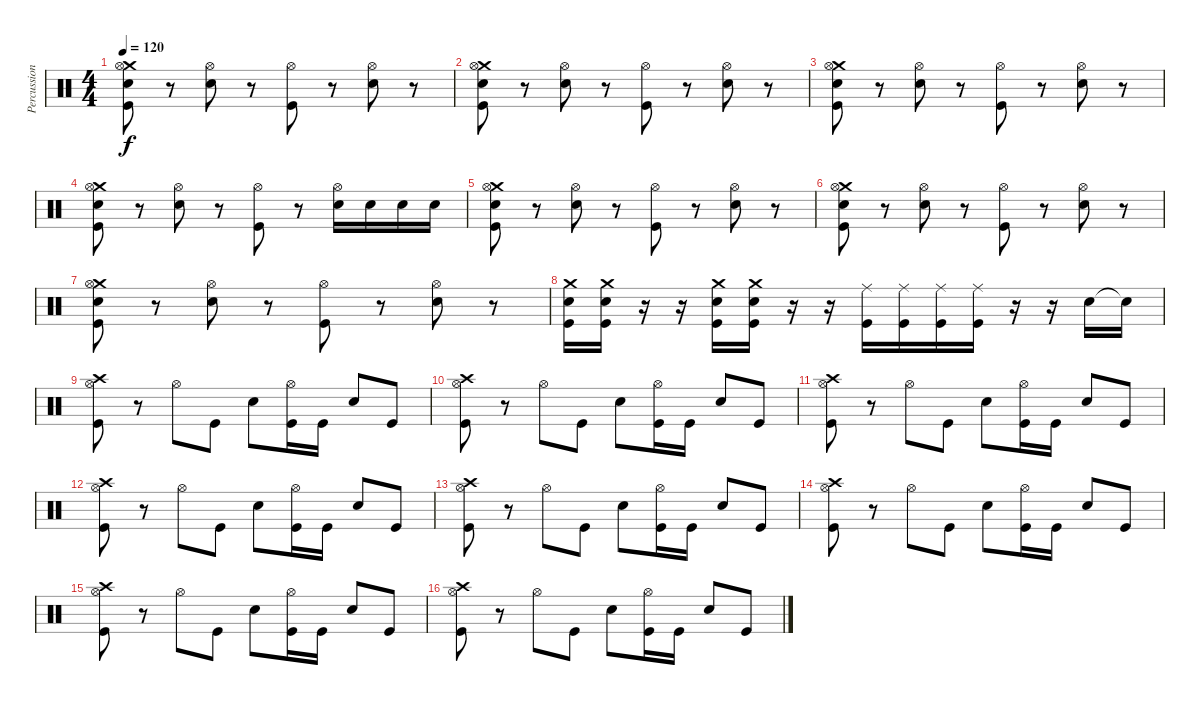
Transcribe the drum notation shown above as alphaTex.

\track ("Percussion" "Percussion") {instrument percussion}
\staff {score}
\articulation defaults
\ts (4 4)
\tempo 120
\clef neutral
\ks c
("Crash medium (hit)" "Hi-Hat (open)" "Electric Snare (hit)" "Kick (hit)").8{dy f} r.8 ("Hi-Hat (open)" "Electric Snare (hit)").8 r.8 ("Hi-Hat (open)" "Kick (hit)").8 r.8 ("Hi-Hat (open)" "Electric Snare (hit)").8 r.8 |
("Crash medium (hit)" "Hi-Hat (open)" "Electric Snare (hit)" "Kick (hit)").8 r.8 ("Hi-Hat (open)" "Electric Snare (hit)").8 r.8 ("Hi-Hat (open)" "Kick (hit)").8 r.8 ("Hi-Hat (open)" "Electric Snare (hit)").8 r.8 |
("Crash medium (hit)" "Hi-Hat (open)" "Electric Snare (hit)" "Kick (hit)").8 r.8 ("Hi-Hat (open)" "Electric Snare (hit)").8 r.8 ("Hi-Hat (open)" "Kick (hit)").8 r.8 ("Hi-Hat (open)" "Electric Snare (hit)").8 r.8 |
("Crash medium (hit)" "Hi-Hat (open)" "Electric Snare (hit)" "Kick (hit)").8 r.8 ("Hi-Hat (open)" "Electric Snare (hit)").8 r.8 ("Hi-Hat (open)" "Kick (hit)").8 r.8 ("Hi-Hat (open)" "Electric Snare (hit)").16 "Electric Snare (hit)".16 "Electric Snare (hit)".16 "Electric Snare (hit)".16 |
("Crash medium (hit)" "Hi-Hat (open)" "Electric Snare (hit)" "Kick (hit)").8 r.8 ("Hi-Hat (open)" "Electric Snare (hit)").8 r.8 ("Hi-Hat (open)" "Kick (hit)").8 r.8 ("Hi-Hat (open)" "Electric Snare (hit)").8 r.8 |
("Crash medium (hit)" "Hi-Hat (open)" "Electric Snare (hit)" "Kick (hit)").8 r.8 ("Hi-Hat (open)" "Electric Snare (hit)").8 r.8 ("Hi-Hat (open)" "Kick (hit)").8 r.8 ("Hi-Hat (open)" "Electric Snare (hit)").8 r.8 |
("Crash medium (hit)" "Hi-Hat (open)" "Electric Snare (hit)" "Kick (hit)").8 r.8 ("Hi-Hat (open)" "Electric Snare (hit)").8 r.8 ("Hi-Hat (open)" "Kick (hit)").8 r.8 ("Hi-Hat (open)" "Electric Snare (hit)").8 r.8 |
("Crash medium (hit)" "Electric Snare (hit)" "Kick (hit)").16 ("Crash medium (hit)" "Electric Snare (hit)" "Kick (hit)").16 r.16 r.16 ("Crash medium (hit)" "Electric Snare (hit)" "Kick (hit)").16 ("Crash medium (hit)" "Electric Snare (hit)" "Kick (hit)").16 r.16 r.16 ("Ride (middle)" "Kick (hit)").16 ("Ride (middle)" "Kick (hit)").16 ("Ride (middle)" "Kick (hit)").16 ("Ride (middle)" "Kick (hit)").16 r.16 r.16 "Electric Snare (hit)".16 "Electric Snare (hit)"{t}.16 |
("Crash high (hit)" "Hi-Hat (open)" "Kick (hit)").8 r.8 "Hi-Hat (open)".8 "Kick (hit)".8 "Electric Snare (hit)".8 ("Hi-Hat (open)" "Kick (hit)").16 "Kick (hit)".16 "Electric Snare (hit)".8 "Kick (hit)".8 |
("Crash high (hit)" "Hi-Hat (open)" "Kick (hit)").8 r.8 "Hi-Hat (open)".8 "Kick (hit)".8 "Electric Snare (hit)".8 ("Hi-Hat (open)" "Kick (hit)").16 "Kick (hit)".16 "Electric Snare (hit)".8 "Kick (hit)".8 |
("Crash high (hit)" "Hi-Hat (open)" "Kick (hit)").8 r.8 "Hi-Hat (open)".8 "Kick (hit)".8 "Electric Snare (hit)".8 ("Hi-Hat (open)" "Kick (hit)").16 "Kick (hit)".16 "Electric Snare (hit)".8 "Kick (hit)".8 |
("Crash high (hit)" "Hi-Hat (open)" "Kick (hit)").8 r.8 "Hi-Hat (open)".8 "Kick (hit)".8 "Electric Snare (hit)".8 ("Hi-Hat (open)" "Kick (hit)").16 "Kick (hit)".16 "Electric Snare (hit)".8 "Kick (hit)".8 |
("Crash high (hit)" "Hi-Hat (open)" "Kick (hit)").8 r.8 "Hi-Hat (open)".8 "Kick (hit)".8 "Electric Snare (hit)".8 ("Hi-Hat (open)" "Kick (hit)").16 "Kick (hit)".16 "Electric Snare (hit)".8 "Kick (hit)".8 |
("Crash high (hit)" "Hi-Hat (open)" "Kick (hit)").8 r.8 "Hi-Hat (open)".8 "Kick (hit)".8 "Electric Snare (hit)".8 ("Hi-Hat (open)" "Kick (hit)").16 "Kick (hit)".16 "Electric Snare (hit)".8 "Kick (hit)".8 |
("Crash high (hit)" "Hi-Hat (open)" "Kick (hit)").8 r.8 "Hi-Hat (open)".8 "Kick (hit)".8 "Electric Snare (hit)".8 ("Hi-Hat (open)" "Kick (hit)").16 "Kick (hit)".16 "Electric Snare (hit)".8 "Kick (hit)".8 |
("Crash high (hit)" "Hi-Hat (open)" "Kick (hit)").8 r.8 "Hi-Hat (open)".8 "Kick (hit)".8 "Electric Snare (hit)".8 ("Hi-Hat (open)" "Kick (hit)").16 "Kick (hit)".16 "Electric Snare (hit)".8 "Kick (hit)".8
